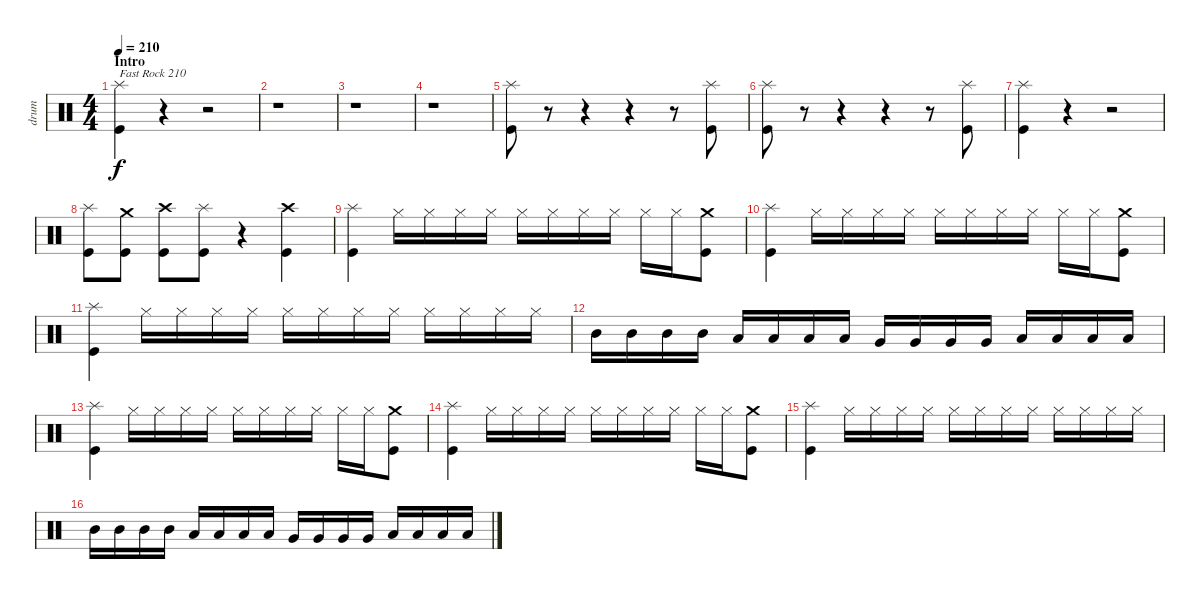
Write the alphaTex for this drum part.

\track ("drum" "drum") {instrument percussion}
\staff {score}
\articulation defaults
\ts (4 4)
\section ("" "Intro")
\tempo 210
\clef neutral
\ks c
("Kick (hit)" "Splash (hit)").4{txt "Fast Rock 210" dy f} r.4 r.2 |
r.1 |
r.1 |
r.1 |
("Kick (hit)" "Splash (hit)").8 r.8 r.4 r.4 r.8 ("Kick (hit)" "Splash (hit)").8 |
("Kick (hit)" "Splash (hit)").8 r.8 r.4 r.4 r.8 ("Kick (hit)" "Splash (hit)").8 |
("Kick (hit)" "Splash (hit)").4 r.4 r.2 |
("Kick (hit)" "Splash (hit)").8 ("Kick (hit)" "Crash medium (hit)").8 ("Kick (hit)" "Crash high (hit)").8 ("Kick (hit)" "Splash (hit)").8 r.4 ("Kick (hit)" "Crash high (hit)").4 |
("Kick (hit)" "Splash (hit)").4 "Hi-Hat (closed)".16 "Hi-Hat (closed)".16 "Hi-Hat (closed)".16 "Hi-Hat (closed)".16 "Hi-Hat (closed)".16 "Hi-Hat (closed)".16 "Hi-Hat (closed)".16 "Hi-Hat (closed)".16 "Hi-Hat (closed)".16 "Hi-Hat (closed)".16 ("Kick (hit)" "Crash medium (hit)").8 |
("Kick (hit)" "Splash (hit)").4 "Hi-Hat (closed)".16 "Hi-Hat (closed)".16 "Hi-Hat (closed)".16 "Hi-Hat (closed)".16 "Hi-Hat (closed)".16 "Hi-Hat (closed)".16 "Hi-Hat (closed)".16 "Hi-Hat (closed)".16 "Hi-Hat (closed)".16 "Hi-Hat (closed)".16 ("Kick (hit)" "Crash medium (hit)").8 |
("Kick (hit)" "Splash (hit)").4 "Hi-Hat (closed)".16 "Hi-Hat (closed)".16 "Hi-Hat (closed)".16 "Hi-Hat (closed)".16 "Hi-Hat (closed)".16 "Hi-Hat (closed)".16 "Hi-Hat (closed)".16 "Hi-Hat (closed)".16 "Hi-Hat (closed)".16 "Hi-Hat (closed)".16 "Hi-Hat (closed)".16 "Hi-Hat (closed)".16 |
"Mid Tom (hit)".16 "Mid Tom (hit)".16 "Mid Tom (hit)".16 "Mid Tom (hit)".16 "Low Tom (hit)".16 "Low Tom (hit)".16 "Low Tom (hit)".16 "Low Tom (hit)".16 "Very Low Tom (hit)".16 "Very Low Tom (hit)".16 "Very Low Tom (hit)".16 "Very Low Tom (hit)".16 "Low Floor Tom (hit)".16 "Low Floor Tom (hit)".16 "Low Floor Tom (hit)".16 "Low Floor Tom (hit)".16 |
("Kick (hit)" "Splash (hit)").4 "Hi-Hat (closed)".16 "Hi-Hat (closed)".16 "Hi-Hat (closed)".16 "Hi-Hat (closed)".16 "Hi-Hat (closed)".16 "Hi-Hat (closed)".16 "Hi-Hat (closed)".16 "Hi-Hat (closed)".16 "Hi-Hat (closed)".16 "Hi-Hat (closed)".16 ("Kick (hit)" "Crash medium (hit)").8 |
("Kick (hit)" "Splash (hit)").4 "Hi-Hat (closed)".16 "Hi-Hat (closed)".16 "Hi-Hat (closed)".16 "Hi-Hat (closed)".16 "Hi-Hat (closed)".16 "Hi-Hat (closed)".16 "Hi-Hat (closed)".16 "Hi-Hat (closed)".16 "Hi-Hat (closed)".16 "Hi-Hat (closed)".16 ("Kick (hit)" "Crash medium (hit)").8 |
("Kick (hit)" "Splash (hit)").4 "Hi-Hat (closed)".16 "Hi-Hat (closed)".16 "Hi-Hat (closed)".16 "Hi-Hat (closed)".16 "Hi-Hat (closed)".16 "Hi-Hat (closed)".16 "Hi-Hat (closed)".16 "Hi-Hat (closed)".16 "Hi-Hat (closed)".16 "Hi-Hat (closed)".16 "Hi-Hat (closed)".16 "Hi-Hat (closed)".16 |
"Mid Tom (hit)".16 "Mid Tom (hit)".16 "Mid Tom (hit)".16 "Mid Tom (hit)".16 "Low Tom (hit)".16 "Low Tom (hit)".16 "Low Tom (hit)".16 "Low Tom (hit)".16 "Very Low Tom (hit)".16 "Very Low Tom (hit)".16 "Very Low Tom (hit)".16 "Very Low Tom (hit)".16 "Low Floor Tom (hit)".16 "Low Floor Tom (hit)".16 "Low Floor Tom (hit)".16 "Low Floor Tom (hit)".16
